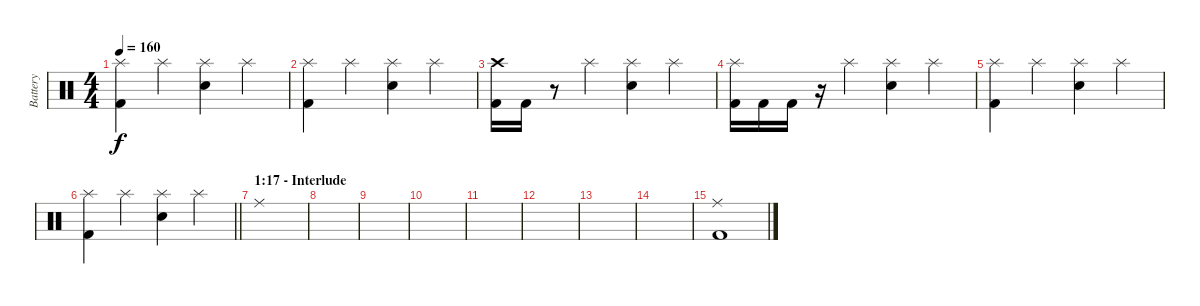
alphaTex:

\track ("Battery" "Battery") {instrument percussion}
\staff {score}
\articulation defaults
\ts (4 4)
\tempo 160
\clef neutral
\ks c
("Splash (hit)" "Kick (hit) 2").4{dy f} "Splash (hit)".4 ("Splash (hit)" "Electric Snare (hit)").4 "Splash (hit)".4 |
("Splash (hit)" "Kick (hit) 2").4 "Splash (hit)".4 ("Splash (hit)" "Electric Snare (hit)").4 "Splash (hit)".4 |
("Crash high (hit)" "Kick (hit) 2").16 "Kick (hit) 2".16 r.8 "Splash (hit)".4 ("Splash (hit)" "Electric Snare (hit)").4 "Splash (hit)".4 |
("Splash (hit)" "Kick (hit) 2").16 "Kick (hit) 2".16 "Kick (hit) 2".16 r.16 "Splash (hit)".4 ("Splash (hit)" "Electric Snare (hit)").4 "Splash (hit)".4 |
("Splash (hit)" "Kick (hit) 2").4 "Splash (hit)".4 ("Splash (hit)" "Electric Snare (hit)").4 "Splash (hit)".4 |
\barLineRight lightlight
("Splash (hit)" "Kick (hit) 2").4 "Splash (hit)".4 ("Splash (hit)" "Electric Snare (hit)").4 "Splash (hit)".4 |
\section ("" "1:17 - Interlude")
"Ride (middle)".1 |
|
|
|
|
|
|
|
("Ride (middle)" "Kick (hit) 2").1
